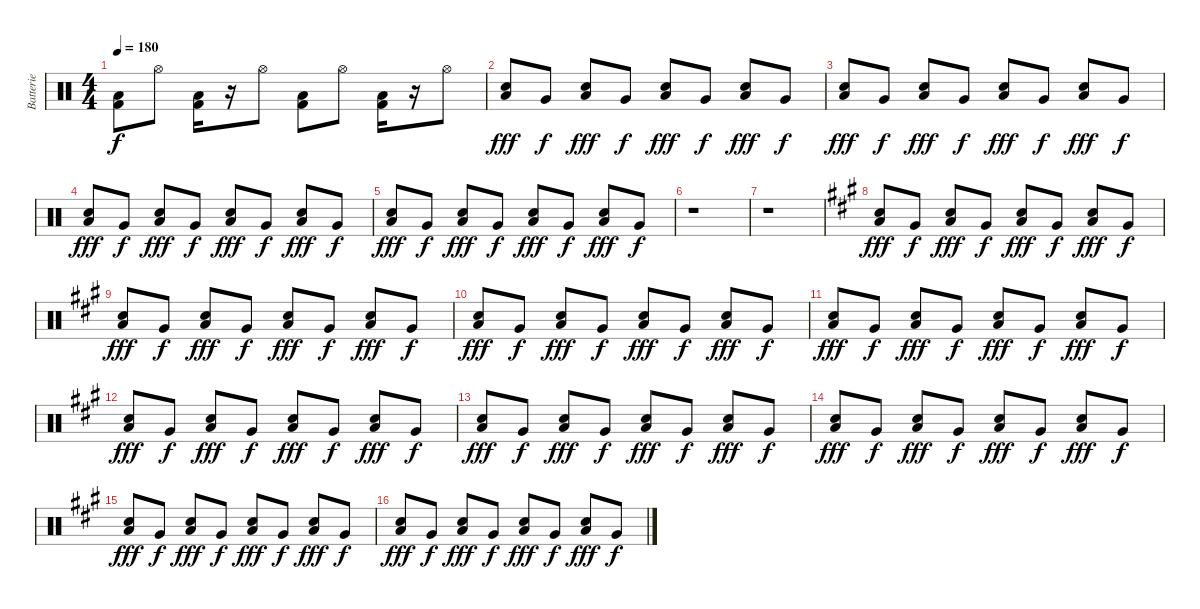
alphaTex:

\track ("Batterie" "Batterie") {instrument percussion}
\staff {score}
\articulation defaults
\ts (4 4)
\tempo 180
\clef neutral
\ks c
("Kick (hit) 2" "Low Floor Tom (hit)").8{dy f} "Hi-Hat (open)".8 ("Kick (hit) 2" "Low Floor Tom (hit)").16 r.16 "Hi-Hat (open)".8 ("Kick (hit) 2" "Low Floor Tom (hit)").8 "Hi-Hat (open)".8 ("Kick (hit) 2" "Low Floor Tom (hit)").16 r.16 "Hi-Hat (open)".8 |
("Electric Snare (hit)" "Low Floor Tom (hit)").8{dy fff} "Very Low Tom (hit)".8{dy f} ("Electric Snare (hit)" "Low Floor Tom (hit)").8{dy fff} "Very Low Tom (hit)".8{dy f} ("Electric Snare (hit)" "Low Floor Tom (hit)").8{dy fff} "Very Low Tom (hit)".8{dy f} ("Electric Snare (hit)" "Low Floor Tom (hit)").8{dy fff} "Very Low Tom (hit)".8{dy f} |
("Electric Snare (hit)" "Low Floor Tom (hit)").8{dy fff} "Very Low Tom (hit)".8{dy f} ("Electric Snare (hit)" "Low Floor Tom (hit)").8{dy fff} "Very Low Tom (hit)".8{dy f} ("Electric Snare (hit)" "Low Floor Tom (hit)").8{dy fff} "Very Low Tom (hit)".8{dy f} ("Electric Snare (hit)" "Low Floor Tom (hit)").8{dy fff} "Very Low Tom (hit)".8{dy f} |
("Electric Snare (hit)" "Low Floor Tom (hit)").8{dy fff} "Very Low Tom (hit)".8{dy f} ("Electric Snare (hit)" "Low Floor Tom (hit)").8{dy fff} "Very Low Tom (hit)".8{dy f} ("Electric Snare (hit)" "Low Floor Tom (hit)").8{dy fff} "Very Low Tom (hit)".8{dy f} ("Electric Snare (hit)" "Low Floor Tom (hit)").8{dy fff} "Very Low Tom (hit)".8{dy f} |
("Electric Snare (hit)" "Low Floor Tom (hit)").8{dy fff} "Very Low Tom (hit)".8{dy f} ("Electric Snare (hit)" "Low Floor Tom (hit)").8{dy fff} "Very Low Tom (hit)".8{dy f} ("Electric Snare (hit)" "Low Floor Tom (hit)").8{dy fff} "Very Low Tom (hit)".8{dy f} ("Electric Snare (hit)" "Low Floor Tom (hit)").8{dy fff} "Very Low Tom (hit)".8{dy f} |
r.1 |
r.1 |
\ks a
("Electric Snare (hit)" "Low Floor Tom (hit)").8{dy fff} "Very Low Tom (hit)".8{dy f} ("Electric Snare (hit)" "Low Floor Tom (hit)").8{dy fff} "Very Low Tom (hit)".8{dy f} ("Electric Snare (hit)" "Low Floor Tom (hit)").8{dy fff} "Very Low Tom (hit)".8{dy f} ("Electric Snare (hit)" "Low Floor Tom (hit)").8{dy fff} "Very Low Tom (hit)".8{dy f} |
("Electric Snare (hit)" "Low Floor Tom (hit)").8{dy fff} "Very Low Tom (hit)".8{dy f} ("Electric Snare (hit)" "Low Floor Tom (hit)").8{dy fff} "Very Low Tom (hit)".8{dy f} ("Electric Snare (hit)" "Low Floor Tom (hit)").8{dy fff} "Very Low Tom (hit)".8{dy f} ("Electric Snare (hit)" "Low Floor Tom (hit)").8{dy fff} "Very Low Tom (hit)".8{dy f} |
("Electric Snare (hit)" "Low Floor Tom (hit)").8{dy fff} "Very Low Tom (hit)".8{dy f} ("Electric Snare (hit)" "Low Floor Tom (hit)").8{dy fff} "Very Low Tom (hit)".8{dy f} ("Electric Snare (hit)" "Low Floor Tom (hit)").8{dy fff} "Very Low Tom (hit)".8{dy f} ("Electric Snare (hit)" "Low Floor Tom (hit)").8{dy fff} "Very Low Tom (hit)".8{dy f} |
("Electric Snare (hit)" "Low Floor Tom (hit)").8{dy fff} "Very Low Tom (hit)".8{dy f} ("Electric Snare (hit)" "Low Floor Tom (hit)").8{dy fff} "Very Low Tom (hit)".8{dy f} ("Electric Snare (hit)" "Low Floor Tom (hit)").8{dy fff} "Very Low Tom (hit)".8{dy f} ("Electric Snare (hit)" "Low Floor Tom (hit)").8{dy fff} "Very Low Tom (hit)".8{dy f} |
("Electric Snare (hit)" "Low Floor Tom (hit)").8{dy fff} "Very Low Tom (hit)".8{dy f} ("Electric Snare (hit)" "Low Floor Tom (hit)").8{dy fff} "Very Low Tom (hit)".8{dy f} ("Electric Snare (hit)" "Low Floor Tom (hit)").8{dy fff} "Very Low Tom (hit)".8{dy f} ("Electric Snare (hit)" "Low Floor Tom (hit)").8{dy fff} "Very Low Tom (hit)".8{dy f} |
("Electric Snare (hit)" "Low Floor Tom (hit)").8{dy fff} "Very Low Tom (hit)".8{dy f} ("Electric Snare (hit)" "Low Floor Tom (hit)").8{dy fff} "Very Low Tom (hit)".8{dy f} ("Electric Snare (hit)" "Low Floor Tom (hit)").8{dy fff} "Very Low Tom (hit)".8{dy f} ("Electric Snare (hit)" "Low Floor Tom (hit)").8{dy fff} "Very Low Tom (hit)".8{dy f} |
("Electric Snare (hit)" "Low Floor Tom (hit)").8{dy fff} "Very Low Tom (hit)".8{dy f} ("Electric Snare (hit)" "Low Floor Tom (hit)").8{dy fff} "Very Low Tom (hit)".8{dy f} ("Electric Snare (hit)" "Low Floor Tom (hit)").8{dy fff} "Very Low Tom (hit)".8{dy f} ("Electric Snare (hit)" "Low Floor Tom (hit)").8{dy fff} "Very Low Tom (hit)".8{dy f} |
("Electric Snare (hit)" "Low Floor Tom (hit)").8{dy fff} "Very Low Tom (hit)".8{dy f} ("Electric Snare (hit)" "Low Floor Tom (hit)").8{dy fff} "Very Low Tom (hit)".8{dy f} ("Electric Snare (hit)" "Low Floor Tom (hit)").8{dy fff} "Very Low Tom (hit)".8{dy f} ("Electric Snare (hit)" "Low Floor Tom (hit)").8{dy fff} "Very Low Tom (hit)".8{dy f} |
("Electric Snare (hit)" "Low Floor Tom (hit)").8{dy fff} "Very Low Tom (hit)".8{dy f} ("Electric Snare (hit)" "Low Floor Tom (hit)").8{dy fff} "Very Low Tom (hit)".8{dy f} ("Electric Snare (hit)" "Low Floor Tom (hit)").8{dy fff} "Very Low Tom (hit)".8{dy f} ("Electric Snare (hit)" "Low Floor Tom (hit)").8{dy fff} "Very Low Tom (hit)".8{dy f}
